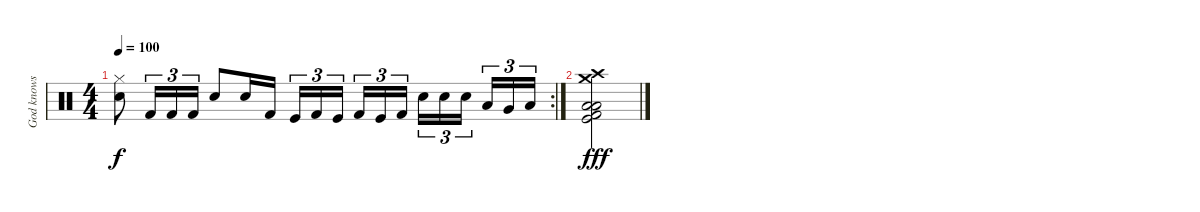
\track ("God knows" "God knows") {instrument percussion}
\staff {score}
\articulation defaults
\rc 2
\ts (4 4)
\tempo 100
\clef neutral
\ks c
("Hi-Hat (closed)" "Snare (hit) 2").8{dy f} "Kick (hit) 2".16{tu (3 2)} "Kick (hit) 2".16{tu (3 2)} "Kick (hit) 2".16{tu (3 2)} "Snare (hit) 2".8 "Snare (hit) 2".16 "Kick (hit) 2".16 "Kick (hit)".16{tu (3 2)} "Kick (hit) 2".16{tu (3 2)} "Kick (hit)".16{tu (3 2) beam splitsecondary} "Kick (hit) 2".16{tu (3 2)} "Kick (hit)".16{tu (3 2)} "Kick (hit) 2".16{tu (3 2)} "Snare (hit) 2".16{tu (3 2)} "Snare (hit) 2".16{tu (3 2)} "Snare (hit) 2".16{tu (3 2) beam splitsecondary} "Low Tom (hit)".16{tu (3 2)} "Very Low Tom (hit)".16{tu (3 2)} "Low Floor Tom (hit)".16{tu (3 2)} |
("Crash medium (hit)" "Crash high (hit)" "Low Tom (hit)" "Low Floor Tom (hit)" "Kick (hit)" "Kick (hit) 2").2{dy fff}
